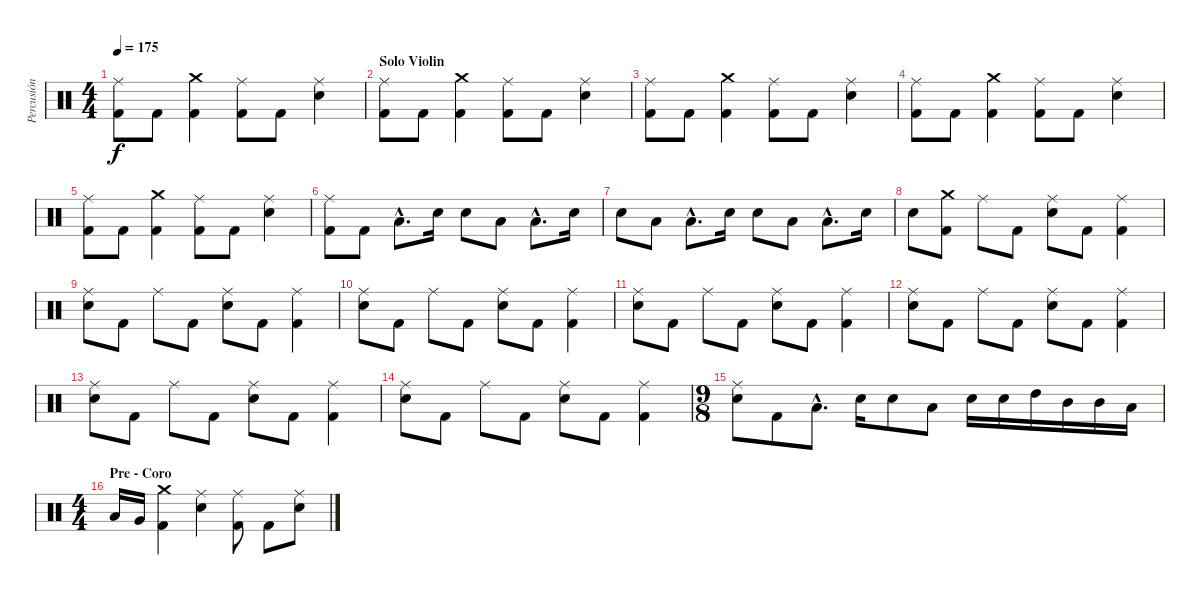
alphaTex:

\track ("Percusión" "Percusión") {instrument percussion}
\staff {score}
\articulation defaults
\ts (4 4)
\tempo 175
\clef neutral
\ks c
("Ride (middle)" "Kick (hit) 2").8{dy f} "Kick (hit) 2".8 ("Crash medium (hit)" "Kick (hit) 2").4 ("Ride (middle)" "Kick (hit) 2").8 "Kick (hit) 2".8 ("Snare (hit) 2" "Ride (middle)").4 |
\section ("" "Solo Violin")
("Ride (middle)" "Kick (hit) 2").8 "Kick (hit) 2".8 ("Crash medium (hit)" "Kick (hit) 2").4 ("Ride (middle)" "Kick (hit) 2").8 "Kick (hit) 2".8 ("Snare (hit) 2" "Ride (middle)").4 |
("Ride (middle)" "Kick (hit) 2").8 "Kick (hit) 2".8 ("Crash medium (hit)" "Kick (hit) 2").4 ("Ride (middle)" "Kick (hit) 2").8 "Kick (hit) 2".8 ("Snare (hit) 2" "Ride (middle)").4 |
("Ride (middle)" "Kick (hit) 2").8 "Kick (hit) 2".8 ("Crash medium (hit)" "Kick (hit) 2").4 ("Ride (middle)" "Kick (hit) 2").8 "Kick (hit) 2".8 ("Snare (hit) 2" "Ride (middle)").4 |
("Ride (middle)" "Kick (hit) 2").8 "Kick (hit) 2".8 ("Crash medium (hit)" "Kick (hit) 2").4 ("Ride (middle)" "Kick (hit) 2").8 "Kick (hit) 2".8 ("Snare (hit) 2" "Ride (middle)").4 |
("Ride (middle)" "Kick (hit) 2").8 "Kick (hit) 2".8 "Low Tom (hit)"{hac}.8{d} "Snare (hit) 2".16 "Snare (hit) 2".8 "Low Tom (hit)".8 "Low Tom (hit)"{hac}.8{d} "Snare (hit) 2".16 |
"Snare (hit) 2".8 "Low Tom (hit)".8 "Low Tom (hit)"{hac}.8{d} "Snare (hit) 2".16 "Snare (hit) 2".8 "Low Tom (hit)".8 "Low Tom (hit)"{hac}.8{d} "Snare (hit) 2".16 |
"Snare (hit) 2".8 ("Crash medium (hit)" "Kick (hit) 2").8 "Ride (middle)".8 "Kick (hit) 2".8 ("Snare (hit) 2" "Ride (middle)").8 "Kick (hit) 2".8 ("Ride (middle)" "Kick (hit) 2").4 |
("Snare (hit) 2" "Ride (middle)").8 "Kick (hit) 2".8 "Ride (middle)".8 "Kick (hit) 2".8 ("Snare (hit) 2" "Ride (middle)").8 "Kick (hit) 2".8 ("Ride (middle)" "Kick (hit) 2").4 |
("Snare (hit) 2" "Ride (middle)").8 "Kick (hit) 2".8 "Ride (middle)".8 "Kick (hit) 2".8 ("Snare (hit) 2" "Ride (middle)").8 "Kick (hit) 2".8 ("Ride (middle)" "Kick (hit) 2").4 |
("Snare (hit) 2" "Ride (middle)").8 "Kick (hit) 2".8 "Ride (middle)".8 "Kick (hit) 2".8 ("Snare (hit) 2" "Ride (middle)").8 "Kick (hit) 2".8 ("Ride (middle)" "Kick (hit) 2").4 |
("Snare (hit) 2" "Ride (middle)").8 "Kick (hit) 2".8 "Ride (middle)".8 "Kick (hit) 2".8 ("Snare (hit) 2" "Ride (middle)").8 "Kick (hit) 2".8 ("Ride (middle)" "Kick (hit) 2").4 |
("Snare (hit) 2" "Ride (middle)").8 "Kick (hit) 2".8 "Ride (middle)".8 "Kick (hit) 2".8 ("Snare (hit) 2" "Ride (middle)").8 "Kick (hit) 2".8 ("Ride (middle)" "Kick (hit) 2").4 |
("Snare (hit) 2" "Ride (middle)").8 "Kick (hit) 2".8 "Ride (middle)".8 "Kick (hit) 2".8 ("Snare (hit) 2" "Ride (middle)").8 "Kick (hit) 2".8 ("Ride (middle)" "Kick (hit) 2").4 |
\ts (9 8)
("Snare (hit) 2" "Ride (middle)").8 "Kick (hit) 2".8 "Low Tom (hit)"{hac}.8{d} "Snare (hit) 2".16 "Snare (hit) 2".8 "Low Tom (hit)".8 "Snare (hit) 2".16 "Snare (hit) 2".16 "High Tom (hit)".16 "Mid Tom (hit)".16 "Mid Tom (hit)".16 "Low Tom (hit)".16 |
\ts (4 4)
\section ("" "Pre - Coro")
"Low Tom (hit)".16 "Very Low Tom (hit)".16 ("Kick (hit) 2" "Crash medium (hit)").4 ("Ride (middle)" "Snare (hit) 2").4 ("Kick (hit) 2" "Ride (middle)").8 "Kick (hit) 2".8 ("Ride (middle)" "Snare (hit) 2").8
